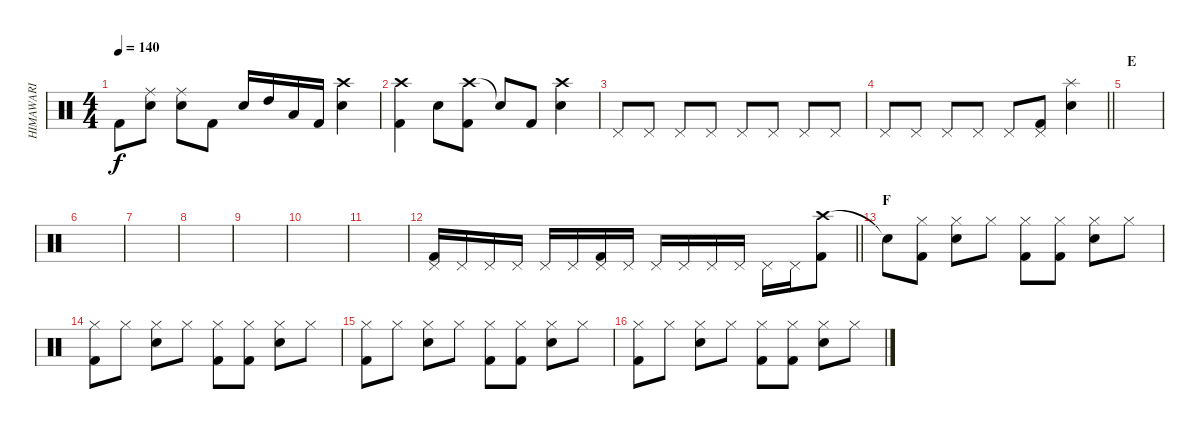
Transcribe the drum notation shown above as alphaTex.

\track ("HIMAWARI" "HIMAWARI") {instrument percussion}
\staff {score}
\articulation defaults
\ts (4 4)
\tempo 140
\clef neutral
\ks c "Kick (hit) 2".8{dy f}
("Ride (middle)" "Snare (hit) 2").8 ("Ride (middle)" "Snare (hit) 2").8 "Kick (hit) 2".8 "Snare (hit) 2".16 "High Tom (hit)".16 "Low Tom (hit)".16 "Kick (hit) 2".16 ("Crash high (hit)" "Snare (hit) 2").4 |
("Crash high (hit)" "Kick (hit) 2").4 "Snare (hit) 2".8 ("Crash high (hit)" "Kick (hit) 2").8 "Snare (hit)"{t}.8 "Kick (hit) 2".8 ("Crash high (hit)" "Snare (hit) 2").4 |
"Pedal Hi-Hat (hit)".8 "Pedal Hi-Hat (hit)".8 "Pedal Hi-Hat (hit)".8 "Pedal Hi-Hat (hit)".8 "Pedal Hi-Hat (hit)".8 "Pedal Hi-Hat (hit)".8 "Pedal Hi-Hat (hit)".8 "Pedal Hi-Hat (hit)".8 |
\barLineRight lightlight "Pedal Hi-Hat (hit)".8 "Pedal Hi-Hat (hit)".8 "Pedal Hi-Hat (hit)".8 "Pedal Hi-Hat (hit)".8 "Pedal Hi-Hat (hit)".8
("Pedal Hi-Hat (hit)" "Kick (hit) 2").8 ("Splash (hit)" "Snare (hit) 2").4 |
\section ("" "E")
|
|
|
|
|
|
|
\barLineRight lightlight
("Pedal Hi-Hat (hit)" "Kick (hit) 2").16 "Pedal Hi-Hat (hit)".16 "Pedal Hi-Hat (hit)".16 "Pedal Hi-Hat (hit)".16 "Pedal Hi-Hat (hit)".16 "Pedal Hi-Hat (hit)".16 ("Pedal Hi-Hat (hit)" "Kick (hit) 2").16 "Pedal Hi-Hat (hit)".16 "Pedal Hi-Hat (hit)".16 "Pedal Hi-Hat (hit)".16 "Pedal Hi-Hat (hit)".16 "Pedal Hi-Hat (hit)".16 "Pedal Hi-Hat (hit)".16 "Pedal Hi-Hat (hit)".16 ("Crash high (hit)" "Kick (hit) 2").8 |
\section ("" "F")
"Snare (hit)"{t}.8 ("Hi-Hat (closed)" "Kick (hit) 2").8 ("Hi-Hat (closed)" "Snare (hit) 2").8 "Hi-Hat (closed)".8 ("Hi-Hat (closed)" "Kick (hit) 2").8 ("Hi-Hat (closed)" "Kick (hit) 2").8 ("Hi-Hat (closed)" "Snare (hit) 2").8 "Hi-Hat (closed)".8 |
("Hi-Hat (closed)" "Kick (hit) 2").8 "Hi-Hat (closed)".8 ("Hi-Hat (closed)" "Snare (hit) 2").8 "Hi-Hat (closed)".8 ("Hi-Hat (closed)" "Kick (hit) 2").8 ("Hi-Hat (closed)" "Kick (hit) 2").8 ("Hi-Hat (closed)" "Snare (hit) 2").8 "Hi-Hat (closed)".8 |
("Hi-Hat (closed)" "Kick (hit) 2").8 "Hi-Hat (closed)".8 ("Hi-Hat (closed)" "Snare (hit) 2").8 "Hi-Hat (closed)".8 ("Hi-Hat (closed)" "Kick (hit) 2").8 ("Hi-Hat (closed)" "Kick (hit) 2").8 ("Hi-Hat (closed)" "Snare (hit) 2").8 "Hi-Hat (closed)".8 |
("Hi-Hat (closed)" "Kick (hit) 2").8 "Hi-Hat (closed)".8 ("Hi-Hat (closed)" "Snare (hit) 2").8 "Hi-Hat (closed)".8 ("Hi-Hat (closed)" "Kick (hit) 2").8 ("Hi-Hat (closed)" "Kick (hit) 2").8 ("Hi-Hat (closed)" "Snare (hit) 2").8 "Hi-Hat (closed)".8
